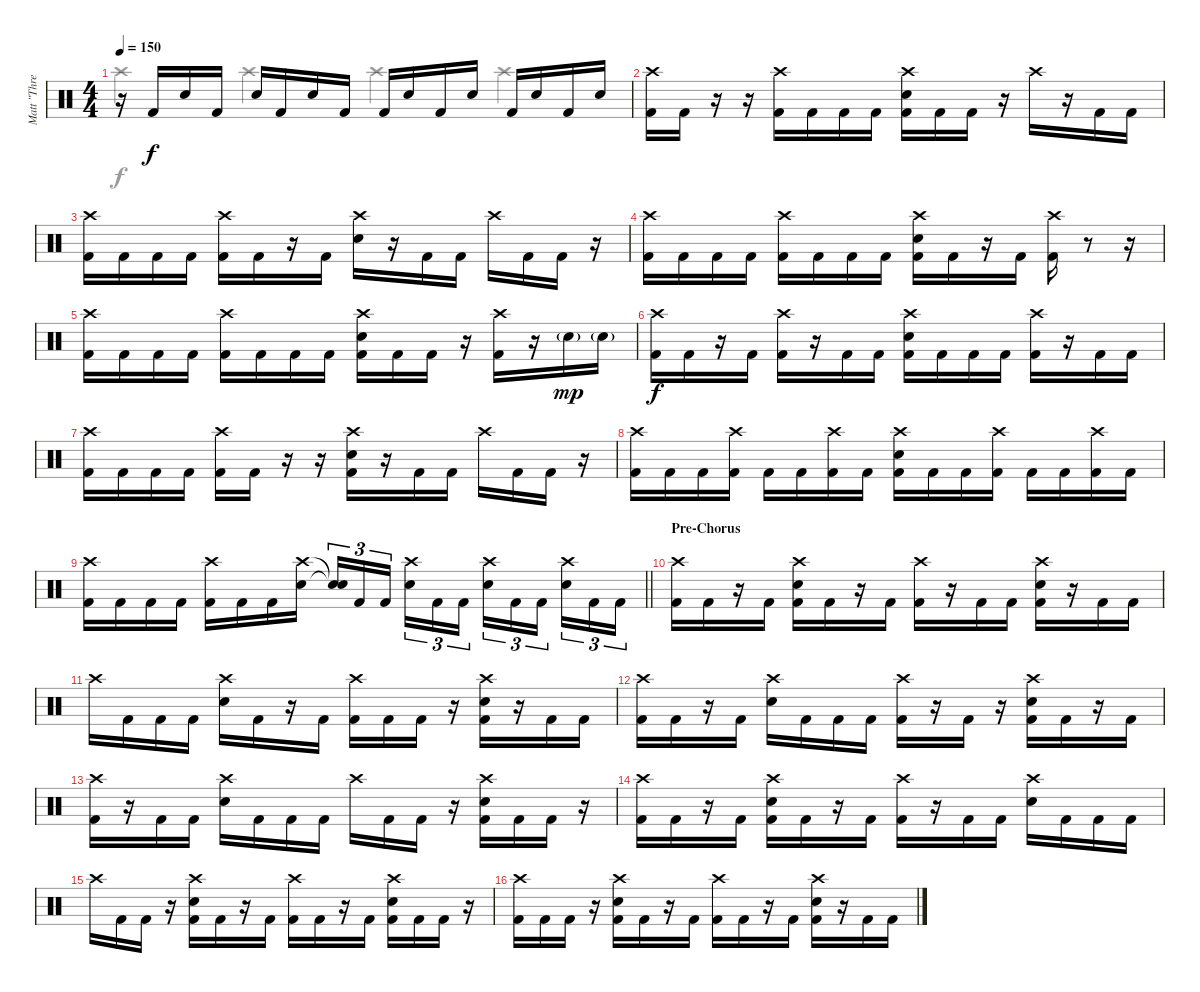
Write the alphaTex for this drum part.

\track ("Matt \"Three Cymbals/Swing\" Halpern" "Matt \"Thre") {instrument percussion}
\staff {score}
\articulation defaults
\voice
\ts (4 4)
\tempo 150
\clef neutral
\ks c
r.16{dy f} "Kick (hit) 2".16 "Snare (hit) 2".16 "Kick (hit) 2".16 "Snare (hit) 2".16 "Kick (hit) 2".16 "Snare (hit) 2".16 "Kick (hit) 2".16 "Kick (hit) 2".16 "Snare (hit) 2".16 "Kick (hit) 2".16 "Snare (hit) 2".16 "Kick (hit) 2".16 "Snare (hit) 2".16 "Kick (hit) 2".16 "Snare (hit) 2".16 |
("Crash high (hit)" "Kick (hit) 2").16 "Kick (hit) 2".16 r.16 r.16 ("Crash high (hit)" "Kick (hit) 2").16 "Kick (hit) 2".16 "Kick (hit) 2".16 "Kick (hit) 2".16 ("Crash high (hit)" "Snare (hit) 2" "Kick (hit) 2").16 "Kick (hit) 2".16 "Kick (hit) 2".16 r.16 "Crash high (hit)".16 r.16 "Kick (hit) 2".16 "Kick (hit) 2".16 |
("Crash high (hit)" "Kick (hit) 2").16 "Kick (hit) 2".16 "Kick (hit) 2".16 "Kick (hit) 2".16 ("Crash high (hit)" "Kick (hit) 2").16 "Kick (hit) 2".16 r.16 "Kick (hit) 2".16 ("Crash high (hit)" "Snare (hit) 2").16 r.16 "Kick (hit) 2".16 "Kick (hit) 2".16 "Crash high (hit)".16 "Kick (hit) 2".16 "Kick (hit) 2".16 r.16 |
("Crash high (hit)" "Kick (hit) 2").16 "Kick (hit) 2".16 "Kick (hit) 2".16 "Kick (hit) 2".16 ("Crash high (hit)" "Kick (hit) 2").16 "Kick (hit) 2".16 "Kick (hit) 2".16 "Kick (hit) 2".16 ("Crash high (hit)" "Snare (hit) 2" "Kick (hit) 2").16 "Kick (hit) 2".16 r.16 "Kick (hit) 2".16 ("Crash high (hit)" "Kick (hit) 2").16 r.8 r.16 |
("Crash high (hit)" "Kick (hit) 2").16 "Kick (hit) 2".16 "Kick (hit) 2".16 "Kick (hit) 2".16 ("Crash high (hit)" "Kick (hit) 2").16 "Kick (hit) 2".16 "Kick (hit) 2".16 "Kick (hit) 2".16 ("Crash high (hit)" "Snare (hit) 2" "Kick (hit) 2").16 "Kick (hit) 2".16 "Kick (hit) 2".16 r.16 ("Crash high (hit)" "Kick (hit) 2").16 r.16 "Snare (hit) 2"{g}.16{dy mp} "Snare (hit) 2"{g}.16 |
("Crash high (hit)" "Kick (hit) 2").16{dy f} "Kick (hit) 2".16 r.16 "Kick (hit) 2".16 ("Crash high (hit)" "Kick (hit) 2").16 r.16 "Kick (hit) 2".16 "Kick (hit) 2".16 ("Crash high (hit)" "Snare (hit) 2" "Kick (hit) 2").16 "Kick (hit) 2".16 "Kick (hit) 2".16 "Kick (hit) 2".16 ("Crash high (hit)" "Kick (hit) 2").16 r.16 "Kick (hit) 2".16 "Kick (hit) 2".16 |
("Crash high (hit)" "Kick (hit) 2").16 "Kick (hit) 2".16 "Kick (hit) 2".16 "Kick (hit) 2".16 ("Crash high (hit)" "Kick (hit) 2").16 "Kick (hit) 2".16 r.16 r.16 ("Crash high (hit)" "Snare (hit) 2" "Kick (hit) 2").16 r.16 "Kick (hit) 2".16 "Kick (hit) 2".16 "Crash high (hit)".16 "Kick (hit) 2".16 "Kick (hit) 2".16 r.16 |
("Crash high (hit)" "Kick (hit) 2").16 "Kick (hit) 2".16 "Kick (hit) 2".16 ("Crash high (hit)" "Kick (hit) 2").16 "Kick (hit) 2".16 "Kick (hit) 2".16 ("Crash high (hit)" "Kick (hit) 2").16 "Kick (hit) 2".16 ("Crash high (hit)" "Snare (hit) 2" "Kick (hit) 2").16 "Kick (hit) 2".16 "Kick (hit) 2".16 ("Crash high (hit)" "Kick (hit) 2").16 "Kick (hit) 2".16 "Kick (hit) 2".16 ("Crash high (hit)" "Kick (hit) 2").16 "Kick (hit) 2".16 |
\barLineRight lightlight
("Crash high (hit)" "Kick (hit) 2").16 "Kick (hit) 2".16 "Kick (hit) 2".16 "Kick (hit) 2".16 ("Crash high (hit)" "Kick (hit) 2").16 "Kick (hit) 2".16 "Kick (hit) 2".16 ("Crash high (hit)" "Snare (hit) 2").16 ("Snare (hit)"{t} "Snare (hit)"{t}).16{tu (3 2)} "Kick (hit) 2".16{tu (3 2)} "Kick (hit) 2".16{tu (3 2) beam splitsecondary} ("Crash high (hit)" "Snare (hit) 2").16{tu (3 2)} "Kick (hit) 2".16{tu (3 2)} "Kick (hit) 2".16{tu (3 2)} ("Crash high (hit)" "Snare (hit) 2").16{tu (3 2)} "Kick (hit) 2".16{tu (3 2)} "Kick (hit) 2".16{tu (3 2) beam splitsecondary} ("Crash high (hit)" "Snare (hit) 2").16{tu (3 2)} "Kick (hit) 2".16{tu (3 2)} "Kick (hit) 2".16{tu (3 2)} |
\section ("" "Pre-Chorus")
("Crash high (hit)" "Kick (hit) 2").16 "Kick (hit) 2".16 r.16 "Kick (hit) 2".16 ("Crash high (hit)" "Snare (hit) 2" "Kick (hit) 2").16 "Kick (hit) 2".16 r.16 "Kick (hit) 2".16 ("Crash high (hit)" "Kick (hit) 2").16 r.16 "Kick (hit) 2".16 "Kick (hit) 2".16 ("Crash high (hit)" "Snare (hit) 2" "Kick (hit) 2").16 r.16 "Kick (hit) 2".16 "Kick (hit) 2".16 |
"Crash high (hit)".16 "Kick (hit) 2".16 "Kick (hit) 2".16 "Kick (hit) 2".16 ("Crash high (hit)" "Snare (hit) 2").16 "Kick (hit) 2".16 r.16 "Kick (hit) 2".16 ("Crash high (hit)" "Kick (hit) 2").16 "Kick (hit) 2".16 "Kick (hit) 2".16 r.16 ("Crash high (hit)" "Snare (hit) 2" "Kick (hit) 2").16 r.16 "Kick (hit) 2".16 "Kick (hit) 2".16 |
("Crash high (hit)" "Kick (hit) 2").16 "Kick (hit) 2".16 r.16 "Kick (hit) 2".16 ("Crash high (hit)" "Snare (hit) 2").16 "Kick (hit) 2".16 "Kick (hit) 2".16 "Kick (hit) 2".16 ("Crash high (hit)" "Kick (hit) 2").16 r.16 "Kick (hit) 2".16 r.16 ("Crash high (hit)" "Snare (hit) 2" "Kick (hit) 2").16 "Kick (hit) 2".16 r.16 "Kick (hit) 2".16 |
("Crash high (hit)" "Kick (hit) 2").16 r.16 "Kick (hit) 2".16 "Kick (hit) 2".16 ("Crash high (hit)" "Snare (hit) 2").16 "Kick (hit) 2".16 "Kick (hit) 2".16 "Kick (hit) 2".16 "Crash high (hit)".16 "Kick (hit) 2".16 "Kick (hit) 2".16 r.16 ("Crash high (hit)" "Snare (hit) 2" "Kick (hit) 2").16 "Kick (hit) 2".16 "Kick (hit) 2".16 r.16 |
("Crash high (hit)" "Kick (hit) 2").16 "Kick (hit) 2".16 r.16 "Kick (hit) 2".16 ("Crash high (hit)" "Snare (hit) 2" "Kick (hit) 2").16 "Kick (hit) 2".16 r.16 "Kick (hit) 2".16 ("Crash high (hit)" "Kick (hit) 2").16 r.16 "Kick (hit) 2".16 "Kick (hit) 2".16 ("Crash high (hit)" "Snare (hit) 2").16 "Kick (hit) 2".16 "Kick (hit) 2".16 "Kick (hit) 2".16 |
"Crash high (hit)".16 "Kick (hit) 2".16 "Kick (hit) 2".16 r.16 ("Crash high (hit)" "Snare (hit) 2" "Kick (hit) 2").16 "Kick (hit) 2".16 r.16 "Kick (hit) 2".16 ("Crash high (hit)" "Kick (hit) 2").16 "Kick (hit) 2".16 r.16 "Kick (hit) 2".16 ("Crash high (hit)" "Snare (hit) 2" "Kick (hit) 2").16 "Kick (hit) 2".16 "Kick (hit) 2".16 r.16 |
("Crash high (hit)" "Kick (hit) 2").16 "Kick (hit) 2".16 "Kick (hit) 2".16 r.16 ("Crash high (hit)" "Snare (hit) 2" "Kick (hit) 2").16 "Kick (hit) 2".16 r.16 "Kick (hit) 2".16 ("Crash high (hit)" "Kick (hit) 2").16 "Kick (hit) 2".16 r.16 "Kick (hit) 2".16 ("Crash high (hit)" "Snare (hit) 2" "Kick (hit) 2").16 r.16 "Kick (hit) 2".16 "Kick (hit) 2".16
\voice
\clef neutral
\ottava regular
\simile none
\ks c "Crash high (hit)".4{dy f} "Crash high (hit)".4 "Crash high (hit)".4 "Crash high (hit)".4
|
|
|
|
|
|
|
|
\barLineRight lightlight
|
|
|
|
|
|
|
